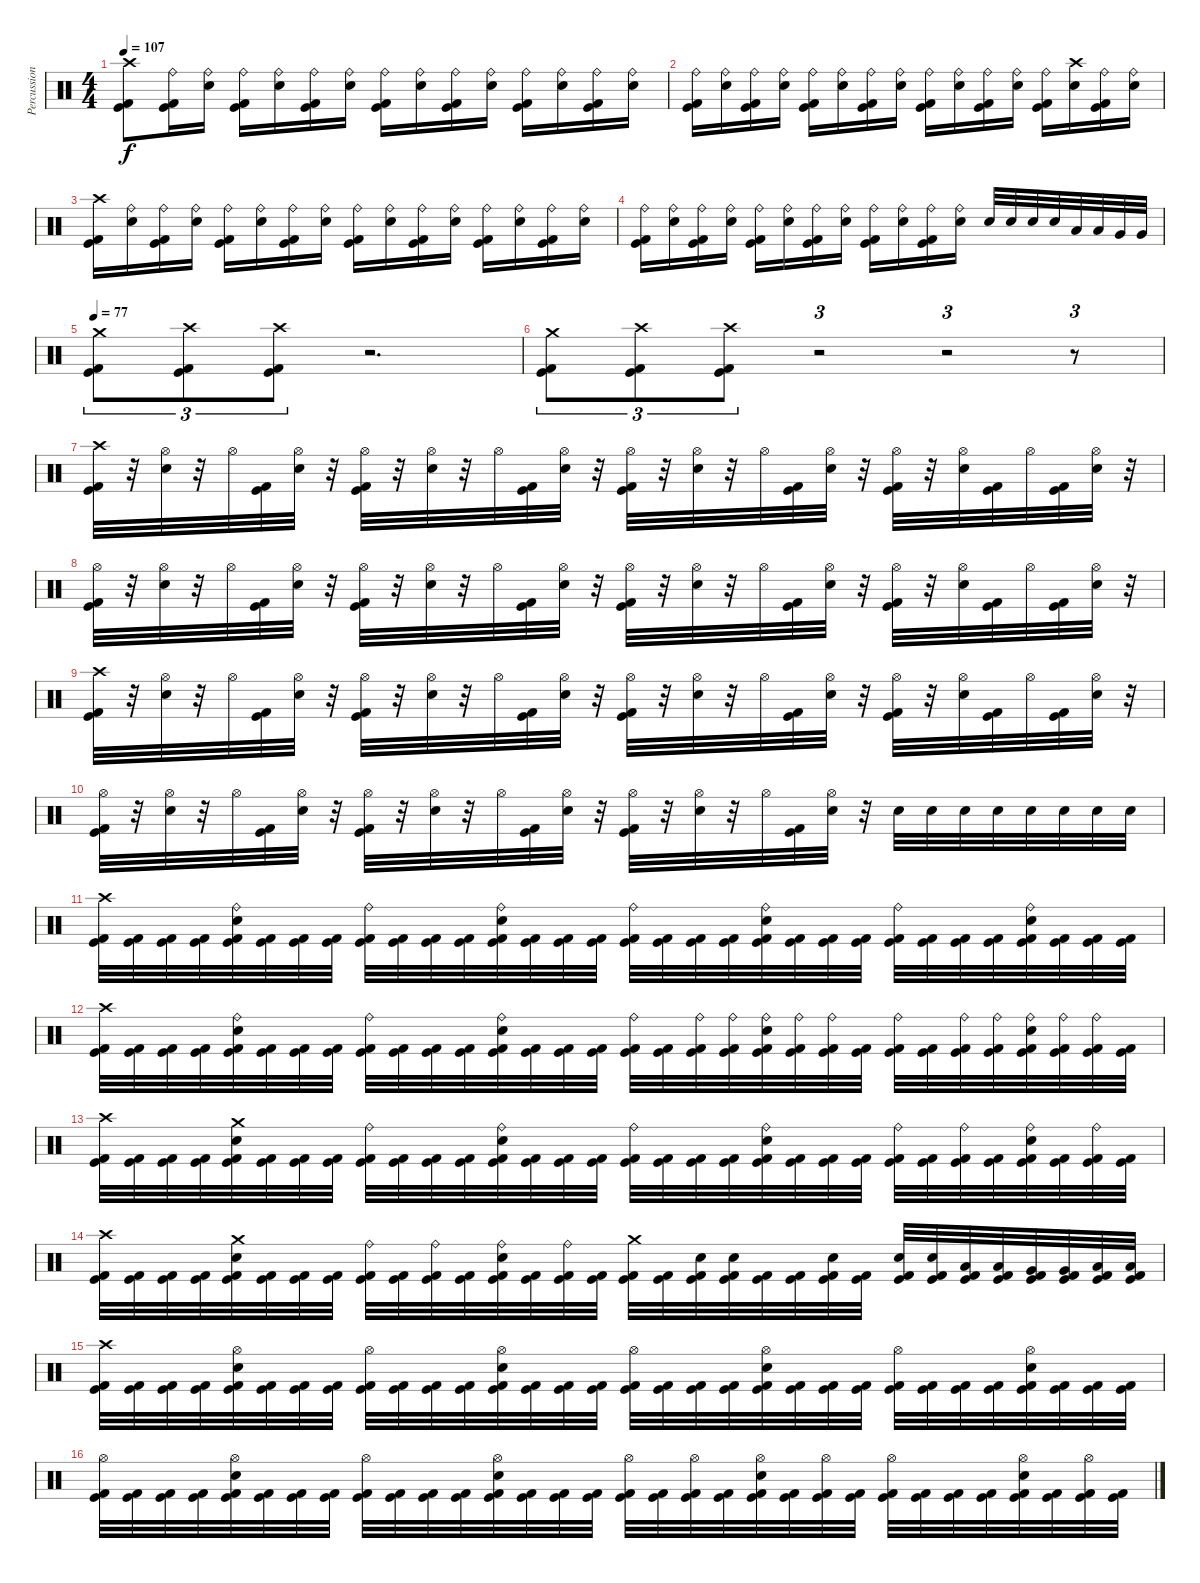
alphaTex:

\track ("Percussion" "Percussion") {instrument percussion}
\staff {score}
\articulation defaults
\ts (4 4)
\tempo 107
\clef neutral
\ks c
("Crash high (hit)" "Kick (hit)" "Kick (hit) 2").8{dy f} ("Ride (bell)" "Kick (hit)" "Kick (hit) 2").16 ("Ride (bell)" "Electric Snare (hit)").16 ("Ride (bell)" "Kick (hit)" "Kick (hit) 2").16 ("Ride (bell)" "Electric Snare (hit)").16 ("Ride (bell)" "Kick (hit)" "Kick (hit) 2").16 ("Ride (bell)" "Electric Snare (hit)").16 ("Ride (bell)" "Kick (hit)" "Kick (hit) 2").16 ("Ride (bell)" "Electric Snare (hit)").16 ("Ride (bell)" "Kick (hit)" "Kick (hit) 2").16 ("Ride (bell)" "Electric Snare (hit)").16 ("Ride (bell)" "Kick (hit)" "Kick (hit) 2").16 ("Ride (bell)" "Electric Snare (hit)").16 ("Ride (bell)" "Kick (hit)" "Kick (hit) 2").16 ("Ride (bell)" "Electric Snare (hit)").16 |
("Ride (bell)" "Kick (hit)" "Kick (hit) 2").16 ("Ride (bell)" "Electric Snare (hit)").16 ("Ride (bell)" "Kick (hit)" "Kick (hit) 2").16 ("Ride (bell)" "Electric Snare (hit)").16 ("Ride (bell)" "Kick (hit)" "Kick (hit) 2").16 ("Ride (bell)" "Electric Snare (hit)").16 ("Ride (bell)" "Kick (hit)" "Kick (hit) 2").16 ("Ride (bell)" "Electric Snare (hit)").16 ("Ride (bell)" "Kick (hit)" "Kick (hit) 2").16 ("Ride (bell)" "Electric Snare (hit)").16 ("Ride (bell)" "Kick (hit)" "Kick (hit) 2").16 ("Ride (bell)" "Electric Snare (hit)").16 ("Ride (bell)" "Kick (hit)" "Kick (hit) 2").16 ("Crash high (hit)" "Electric Snare (hit)").16 ("Ride (bell)" "Kick (hit)" "Kick (hit) 2").16 ("Ride (bell)" "Electric Snare (hit)").16 |
("Crash high (hit)" "Kick (hit)" "Kick (hit) 2").16 ("Ride (bell)" "Electric Snare (hit)").16 ("Ride (bell)" "Kick (hit)" "Kick (hit) 2").16 ("Ride (bell)" "Electric Snare (hit)").16 ("Ride (bell)" "Kick (hit)" "Kick (hit) 2").16 ("Ride (bell)" "Electric Snare (hit)").16 ("Ride (bell)" "Kick (hit)" "Kick (hit) 2").16 ("Ride (bell)" "Electric Snare (hit)").16 ("Ride (bell)" "Kick (hit)" "Kick (hit) 2").16 ("Ride (bell)" "Electric Snare (hit)").16 ("Ride (bell)" "Kick (hit)" "Kick (hit) 2").16 ("Ride (bell)" "Electric Snare (hit)").16 ("Ride (bell)" "Kick (hit)" "Kick (hit) 2").16 ("Ride (bell)" "Electric Snare (hit)").16 ("Ride (bell)" "Kick (hit)" "Kick (hit) 2").16 ("Ride (bell)" "Electric Snare (hit)").16 |
("Ride (bell)" "Kick (hit)" "Kick (hit) 2").16 ("Ride (bell)" "Electric Snare (hit)").16 ("Ride (bell)" "Kick (hit)" "Kick (hit) 2").16 ("Ride (bell)" "Electric Snare (hit)").16 ("Ride (bell)" "Kick (hit)" "Kick (hit) 2").16 ("Ride (bell)" "Electric Snare (hit)").16 ("Ride (bell)" "Kick (hit)" "Kick (hit) 2").16 ("Ride (bell)" "Electric Snare (hit)").16 ("Ride (bell)" "Kick (hit)" "Kick (hit) 2").16 ("Ride (bell)" "Electric Snare (hit)").16 ("Ride (bell)" "Kick (hit)" "Kick (hit) 2").16 ("Ride (bell)" "Electric Snare (hit)").16 "Electric Snare (hit)".32 "Electric Snare (hit)".32 "Electric Snare (hit)".32 "Electric Snare (hit)".32 "Low Tom (hit)".32 "Low Tom (hit)".32 "Very Low Tom (hit)".32 "Very Low Tom (hit)".32 |
\tempo 77
("Crash medium (hit)" "Kick (hit)" "Kick (hit) 2").8{tu (3 2)} ("Crash high (hit)" "Kick (hit)" "Kick (hit) 2").8{tu (3 2)} ("Crash high (hit)" "Kick (hit)" "Kick (hit) 2").8{tu (3 2)} r.2{d} |
("Crash medium (hit)" "Kick (hit)" "Kick (hit) 2").8{tu (3 2)} ("Crash high (hit)" "Kick (hit)" "Kick (hit) 2").8{tu (3 2)} ("Crash high (hit)" "Kick (hit)" "Kick (hit) 2").8{tu (3 2)} r.2{tu (3 2)} r.2{tu (3 2)} r.8{tu (3 2)} |
("Crash high (hit)" "Kick (hit)" "Kick (hit) 2").32 r.32 ("Hi-Hat (open)" "Electric Snare (hit)").32 r.32 "Hi-Hat (open)".32 ("Kick (hit)" "Kick (hit) 2").32 ("Hi-Hat (open)" "Electric Snare (hit)").32 r.32 ("Hi-Hat (open)" "Kick (hit)" "Kick (hit) 2").32 r.32 ("Hi-Hat (open)" "Electric Snare (hit)").32 r.32 "Hi-Hat (open)".32 ("Kick (hit)" "Kick (hit) 2").32 ("Hi-Hat (open)" "Electric Snare (hit)").32 r.32 ("Hi-Hat (open)" "Kick (hit)" "Kick (hit) 2").32 r.32 ("Hi-Hat (open)" "Electric Snare (hit)").32 r.32 "Hi-Hat (open)".32 ("Kick (hit)" "Kick (hit) 2").32 ("Hi-Hat (open)" "Electric Snare (hit)").32 r.32 ("Hi-Hat (open)" "Kick (hit)" "Kick (hit) 2").32 r.32 ("Hi-Hat (open)" "Electric Snare (hit)").32 ("Kick (hit)" "Kick (hit) 2").32 "Hi-Hat (open)".32 ("Kick (hit)" "Kick (hit) 2").32 ("Hi-Hat (open)" "Electric Snare (hit)").32 r.32 |
("Hi-Hat (open)" "Kick (hit)" "Kick (hit) 2").32 r.32 ("Hi-Hat (open)" "Electric Snare (hit)").32 r.32 "Hi-Hat (open)".32 ("Kick (hit)" "Kick (hit) 2").32 ("Hi-Hat (open)" "Electric Snare (hit)").32 r.32 ("Hi-Hat (open)" "Kick (hit)" "Kick (hit) 2").32 r.32 ("Hi-Hat (open)" "Electric Snare (hit)").32 r.32 "Hi-Hat (open)".32 ("Kick (hit)" "Kick (hit) 2").32 ("Hi-Hat (open)" "Electric Snare (hit)").32 r.32 ("Hi-Hat (open)" "Kick (hit)" "Kick (hit) 2").32 r.32 ("Hi-Hat (open)" "Electric Snare (hit)").32 r.32 "Hi-Hat (open)".32 ("Kick (hit)" "Kick (hit) 2").32 ("Hi-Hat (open)" "Electric Snare (hit)").32 r.32 ("Hi-Hat (open)" "Kick (hit)" "Kick (hit) 2").32 r.32 ("Hi-Hat (open)" "Electric Snare (hit)").32 ("Kick (hit)" "Kick (hit) 2").32 "Hi-Hat (open)".32 ("Kick (hit)" "Kick (hit) 2").32 ("Hi-Hat (open)" "Electric Snare (hit)").32 r.32 |
("Crash high (hit)" "Kick (hit)" "Kick (hit) 2").32 r.32 ("Hi-Hat (open)" "Electric Snare (hit)").32 r.32 "Hi-Hat (open)".32 ("Kick (hit)" "Kick (hit) 2").32 ("Hi-Hat (open)" "Electric Snare (hit)").32 r.32 ("Hi-Hat (open)" "Kick (hit)" "Kick (hit) 2").32 r.32 ("Hi-Hat (open)" "Electric Snare (hit)").32 r.32 "Hi-Hat (open)".32 ("Kick (hit)" "Kick (hit) 2").32 ("Hi-Hat (open)" "Electric Snare (hit)").32 r.32 ("Hi-Hat (open)" "Kick (hit)" "Kick (hit) 2").32 r.32 ("Hi-Hat (open)" "Electric Snare (hit)").32 r.32 "Hi-Hat (open)".32 ("Kick (hit)" "Kick (hit) 2").32 ("Hi-Hat (open)" "Electric Snare (hit)").32 r.32 ("Hi-Hat (open)" "Kick (hit)" "Kick (hit) 2").32 r.32 ("Hi-Hat (open)" "Electric Snare (hit)").32 ("Kick (hit)" "Kick (hit) 2").32 "Hi-Hat (open)".32 ("Kick (hit)" "Kick (hit) 2").32 ("Hi-Hat (open)" "Electric Snare (hit)").32 r.32 |
("Hi-Hat (open)" "Kick (hit)" "Kick (hit) 2").32 r.32 ("Hi-Hat (open)" "Electric Snare (hit)").32 r.32 "Hi-Hat (open)".32 ("Kick (hit)" "Kick (hit) 2").32 ("Hi-Hat (open)" "Electric Snare (hit)").32 r.32 ("Hi-Hat (open)" "Kick (hit)" "Kick (hit) 2").32 r.32 ("Hi-Hat (open)" "Electric Snare (hit)").32 r.32 "Hi-Hat (open)".32 ("Kick (hit)" "Kick (hit) 2").32 ("Hi-Hat (open)" "Electric Snare (hit)").32 r.32 ("Hi-Hat (open)" "Kick (hit)" "Kick (hit) 2").32 r.32 ("Hi-Hat (open)" "Electric Snare (hit)").32 r.32 "Hi-Hat (open)".32 ("Kick (hit)" "Kick (hit) 2").32 ("Hi-Hat (open)" "Electric Snare (hit)").32 r.32 "Electric Snare (hit)".32 "Electric Snare (hit)".32 "Electric Snare (hit)".32 "Electric Snare (hit)".32 "Electric Snare (hit)".32 "Electric Snare (hit)".32 "Electric Snare (hit)".32 "Electric Snare (hit)".32 |
("Crash high (hit)" "Kick (hit)" "Kick (hit) 2").32 ("Kick (hit)" "Kick (hit) 2").32 ("Kick (hit)" "Kick (hit) 2").32 ("Kick (hit)" "Kick (hit) 2").32 ("Ride (bell)" "Electric Snare (hit)" "Kick (hit)" "Kick (hit) 2").32 ("Kick (hit)" "Kick (hit) 2").32 ("Kick (hit)" "Kick (hit) 2").32 ("Kick (hit)" "Kick (hit) 2").32 ("Ride (bell)" "Kick (hit)" "Kick (hit) 2").32 ("Kick (hit)" "Kick (hit) 2").32 ("Kick (hit)" "Kick (hit) 2").32 ("Kick (hit)" "Kick (hit) 2").32 ("Ride (bell)" "Electric Snare (hit)" "Kick (hit)" "Kick (hit) 2").32 ("Kick (hit)" "Kick (hit) 2").32 ("Kick (hit)" "Kick (hit) 2").32 ("Kick (hit)" "Kick (hit) 2").32 ("Ride (bell)" "Kick (hit)" "Kick (hit) 2").32 ("Kick (hit)" "Kick (hit) 2").32 ("Kick (hit)" "Kick (hit) 2").32 ("Kick (hit)" "Kick (hit) 2").32 ("Ride (bell)" "Electric Snare (hit)" "Kick (hit)" "Kick (hit) 2").32 ("Kick (hit)" "Kick (hit) 2").32 ("Kick (hit)" "Kick (hit) 2").32 ("Kick (hit)" "Kick (hit) 2").32 ("Ride (bell)" "Kick (hit)" "Kick (hit) 2").32 ("Kick (hit)" "Kick (hit) 2").32 ("Kick (hit)" "Kick (hit) 2").32 ("Kick (hit)" "Kick (hit) 2").32 ("Ride (bell)" "Electric Snare (hit)" "Kick (hit)" "Kick (hit) 2").32 ("Kick (hit)" "Kick (hit) 2").32 ("Kick (hit)" "Kick (hit) 2").32 ("Kick (hit)" "Kick (hit) 2").32 |
("Crash high (hit)" "Kick (hit)" "Kick (hit) 2").32 ("Kick (hit)" "Kick (hit) 2").32 ("Kick (hit)" "Kick (hit) 2").32 ("Kick (hit)" "Kick (hit) 2").32 ("Ride (bell)" "Electric Snare (hit)" "Kick (hit)" "Kick (hit) 2").32 ("Kick (hit)" "Kick (hit) 2").32 ("Kick (hit)" "Kick (hit) 2").32 ("Kick (hit)" "Kick (hit) 2").32 ("Ride (bell)" "Kick (hit)" "Kick (hit) 2").32 ("Kick (hit)" "Kick (hit) 2").32 ("Kick (hit)" "Kick (hit) 2").32 ("Kick (hit)" "Kick (hit) 2").32 ("Ride (bell)" "Electric Snare (hit)" "Kick (hit)" "Kick (hit) 2").32 ("Kick (hit)" "Kick (hit) 2").32 ("Kick (hit)" "Kick (hit) 2").32 ("Kick (hit)" "Kick (hit) 2").32 ("Ride (bell)" "Kick (hit)" "Kick (hit) 2").32 ("Kick (hit)" "Kick (hit) 2").32 ("Ride (bell)" "Kick (hit)" "Kick (hit) 2").32 ("Ride (bell)" "Kick (hit)" "Kick (hit) 2").32 ("Ride (bell)" "Electric Snare (hit)" "Kick (hit)" "Kick (hit) 2").32 ("Ride (bell)" "Kick (hit)" "Kick (hit) 2").32 ("Ride (bell)" "Kick (hit)" "Kick (hit) 2").32 ("Kick (hit)" "Kick (hit) 2").32 ("Ride (bell)" "Kick (hit)" "Kick (hit) 2").32 ("Kick (hit)" "Kick (hit) 2").32 ("Ride (bell)" "Kick (hit)" "Kick (hit) 2").32 ("Ride (bell)" "Kick (hit)" "Kick (hit) 2").32 ("Ride (bell)" "Electric Snare (hit)" "Kick (hit)" "Kick (hit) 2").32 ("Ride (bell)" "Kick (hit)" "Kick (hit) 2").32 ("Ride (bell)" "Kick (hit)" "Kick (hit) 2").32 ("Kick (hit)" "Kick (hit) 2").32 |
("Crash high (hit)" "Kick (hit)" "Kick (hit) 2").32 ("Kick (hit)" "Kick (hit) 2").32 ("Kick (hit)" "Kick (hit) 2").32 ("Kick (hit)" "Kick (hit) 2").32 ("Crash medium (hit)" "Electric Snare (hit)" "Kick (hit)" "Kick (hit) 2").32 ("Kick (hit)" "Kick (hit) 2").32 ("Kick (hit)" "Kick (hit) 2").32 ("Kick (hit)" "Kick (hit) 2").32 ("Ride (bell)" "Kick (hit)" "Kick (hit) 2").32 ("Kick (hit)" "Kick (hit) 2").32 ("Kick (hit)" "Kick (hit) 2").32 ("Kick (hit)" "Kick (hit) 2").32 ("Ride (bell)" "Electric Snare (hit)" "Kick (hit)" "Kick (hit) 2").32 ("Kick (hit)" "Kick (hit) 2").32 ("Kick (hit)" "Kick (hit) 2").32 ("Kick (hit)" "Kick (hit) 2").32 ("Ride (bell)" "Kick (hit)" "Kick (hit) 2").32 ("Kick (hit)" "Kick (hit) 2").32 ("Kick (hit)" "Kick (hit) 2").32 ("Kick (hit)" "Kick (hit) 2").32 ("Ride (bell)" "Electric Snare (hit)" "Kick (hit)" "Kick (hit) 2").32 ("Kick (hit)" "Kick (hit) 2").32 ("Kick (hit)" "Kick (hit) 2").32 ("Kick (hit)" "Kick (hit) 2").32 ("Ride (bell)" "Kick (hit)" "Kick (hit) 2").32 ("Kick (hit)" "Kick (hit) 2").32 ("Ride (bell)" "Kick (hit)" "Kick (hit) 2").32 ("Kick (hit)" "Kick (hit) 2").32 ("Ride (bell)" "Electric Snare (hit)" "Kick (hit)" "Kick (hit) 2").32 ("Kick (hit)" "Kick (hit) 2").32 ("Ride (bell)" "Kick (hit)" "Kick (hit) 2").32 ("Kick (hit)" "Kick (hit) 2").32 |
("Crash high (hit)" "Kick (hit)" "Kick (hit) 2").32 ("Kick (hit)" "Kick (hit) 2").32 ("Kick (hit)" "Kick (hit) 2").32 ("Kick (hit)" "Kick (hit) 2").32 ("Crash medium (hit)" "Electric Snare (hit)" "Kick (hit)" "Kick (hit) 2").32 ("Kick (hit)" "Kick (hit) 2").32 ("Kick (hit)" "Kick (hit) 2").32 ("Kick (hit)" "Kick (hit) 2").32 ("Ride (bell)" "Kick (hit)" "Kick (hit) 2").32 ("Kick (hit)" "Kick (hit) 2").32 ("Ride (bell)" "Kick (hit)" "Kick (hit) 2").32 ("Kick (hit)" "Kick (hit) 2").32 ("Ride (bell)" "Electric Snare (hit)" "Kick (hit)" "Kick (hit) 2").32 ("Kick (hit)" "Kick (hit) 2").32 ("Ride (bell)" "Kick (hit)" "Kick (hit) 2").32 ("Kick (hit)" "Kick (hit) 2").32 ("Crash medium (hit)" "Kick (hit)" "Kick (hit) 2").32 ("Kick (hit)" "Kick (hit) 2").32 ("Electric Snare (hit)" "Kick (hit)" "Kick (hit) 2").32 ("Electric Snare (hit)" "Kick (hit)" "Kick (hit) 2").32 ("Kick (hit)" "Kick (hit) 2").32 ("Kick (hit)" "Kick (hit) 2").32 ("Electric Snare (hit)" "Kick (hit)" "Kick (hit) 2").32 ("Kick (hit)" "Kick (hit) 2").32 ("Electric Snare (hit)" "Kick (hit)" "Kick (hit) 2").32 ("Electric Snare (hit)" "Kick (hit)" "Kick (hit) 2").32 ("Low Tom (hit)" "Kick (hit)" "Kick (hit) 2").32 ("Low Tom (hit)" "Kick (hit)" "Kick (hit) 2").32 ("Very Low Tom (hit)" "Kick (hit)" "Kick (hit) 2").32 ("Very Low Tom (hit)" "Kick (hit)" "Kick (hit) 2").32 ("Low Floor Tom (hit)" "Kick (hit)" "Kick (hit) 2").32 ("Low Floor Tom (hit)" "Kick (hit)" "Kick (hit) 2").32 |
("Crash high (hit)" "Kick (hit)" "Kick (hit) 2").32 ("Kick (hit)" "Kick (hit) 2").32 ("Kick (hit)" "Kick (hit) 2").32 ("Kick (hit)" "Kick (hit) 2").32 ("Hi-Hat (open)" "Electric Snare (hit)" "Kick (hit)" "Kick (hit) 2").32 ("Kick (hit)" "Kick (hit) 2").32 ("Kick (hit)" "Kick (hit) 2").32 ("Kick (hit)" "Kick (hit) 2").32 ("Hi-Hat (open)" "Kick (hit)" "Kick (hit) 2").32 ("Kick (hit)" "Kick (hit) 2").32 ("Kick (hit)" "Kick (hit) 2").32 ("Kick (hit)" "Kick (hit) 2").32 ("Hi-Hat (open)" "Electric Snare (hit)" "Kick (hit)" "Kick (hit) 2").32 ("Kick (hit)" "Kick (hit) 2").32 ("Kick (hit)" "Kick (hit) 2").32 ("Kick (hit)" "Kick (hit) 2").32 ("Hi-Hat (open)" "Kick (hit)" "Kick (hit) 2").32 ("Kick (hit)" "Kick (hit) 2").32 ("Kick (hit)" "Kick (hit) 2").32 ("Kick (hit)" "Kick (hit) 2").32 ("Hi-Hat (open)" "Electric Snare (hit)" "Kick (hit)" "Kick (hit) 2").32 ("Kick (hit)" "Kick (hit) 2").32 ("Kick (hit)" "Kick (hit) 2").32 ("Kick (hit)" "Kick (hit) 2").32 ("Hi-Hat (open)" "Kick (hit)" "Kick (hit) 2").32 ("Kick (hit)" "Kick (hit) 2").32 ("Kick (hit)" "Kick (hit) 2").32 ("Kick (hit)" "Kick (hit) 2").32 ("Hi-Hat (open)" "Electric Snare (hit)" "Kick (hit)" "Kick (hit) 2").32 ("Kick (hit)" "Kick (hit) 2").32 ("Kick (hit)" "Kick (hit) 2").32 ("Kick (hit)" "Kick (hit) 2").32 |
("Hi-Hat (open)" "Kick (hit)" "Kick (hit) 2").32 ("Kick (hit)" "Kick (hit) 2").32 ("Kick (hit)" "Kick (hit) 2").32 ("Kick (hit)" "Kick (hit) 2").32 ("Hi-Hat (open)" "Electric Snare (hit)" "Kick (hit)" "Kick (hit) 2").32 ("Kick (hit)" "Kick (hit) 2").32 ("Kick (hit)" "Kick (hit) 2").32 ("Kick (hit)" "Kick (hit) 2").32 ("Hi-Hat (open)" "Kick (hit)" "Kick (hit) 2").32 ("Kick (hit)" "Kick (hit) 2").32 ("Kick (hit)" "Kick (hit) 2").32 ("Kick (hit)" "Kick (hit) 2").32 ("Hi-Hat (open)" "Electric Snare (hit)" "Kick (hit)" "Kick (hit) 2").32 ("Kick (hit)" "Kick (hit) 2").32 ("Kick (hit)" "Kick (hit) 2").32 ("Kick (hit)" "Kick (hit) 2").32 ("Hi-Hat (open)" "Kick (hit)" "Kick (hit) 2").32 ("Kick (hit)" "Kick (hit) 2").32 ("Hi-Hat (open)" "Kick (hit)" "Kick (hit) 2").32 ("Kick (hit)" "Kick (hit) 2").32 ("Hi-Hat (open)" "Electric Snare (hit)" "Kick (hit)" "Kick (hit) 2").32 ("Kick (hit)" "Kick (hit) 2").32 ("Hi-Hat (open)" "Kick (hit)" "Kick (hit) 2").32 ("Kick (hit)" "Kick (hit) 2").32 ("Hi-Hat (open)" "Kick (hit)" "Kick (hit) 2").32 ("Kick (hit)" "Kick (hit) 2").32 ("Kick (hit)" "Kick (hit) 2").32 ("Kick (hit)" "Kick (hit) 2").32 ("Hi-Hat (open)" "Electric Snare (hit)" "Kick (hit)" "Kick (hit) 2").32 ("Kick (hit)" "Kick (hit) 2").32 ("Hi-Hat (open)" "Kick (hit)" "Kick (hit) 2").32 ("Kick (hit)" "Kick (hit) 2").32
